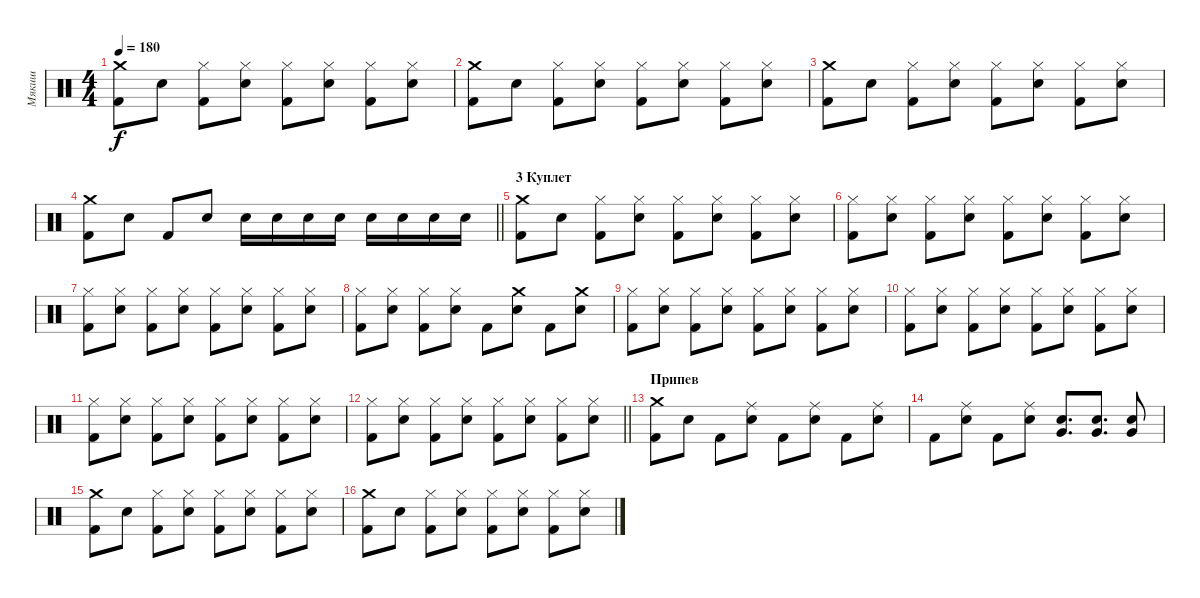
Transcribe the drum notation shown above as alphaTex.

\track ("Мякиш" "Мякиш") {instrument percussion}
\staff {score}
\articulation defaults
\ts (4 4)
\tempo 180
\clef neutral
\ks c
("Crash medium (hit)" "Kick (hit) 2").8{dy f} "Electric Snare (hit)".8 ("Hi-Hat (closed)" "Kick (hit) 2").8 ("Hi-Hat (closed)" "Electric Snare (hit)").8 ("Hi-Hat (closed)" "Kick (hit) 2").8 ("Hi-Hat (closed)" "Electric Snare (hit)").8 ("Hi-Hat (closed)" "Kick (hit) 2").8 ("Hi-Hat (closed)" "Electric Snare (hit)").8 |
("Crash medium (hit)" "Kick (hit) 2").8 "Electric Snare (hit)".8 ("Hi-Hat (closed)" "Kick (hit) 2").8 ("Hi-Hat (closed)" "Electric Snare (hit)").8 ("Hi-Hat (closed)" "Kick (hit) 2").8 ("Hi-Hat (closed)" "Electric Snare (hit)").8 ("Hi-Hat (closed)" "Kick (hit) 2").8 ("Hi-Hat (closed)" "Electric Snare (hit)").8 |
("Crash medium (hit)" "Kick (hit) 2").8 "Electric Snare (hit)".8 ("Hi-Hat (closed)" "Kick (hit) 2").8 ("Hi-Hat (closed)" "Electric Snare (hit)").8 ("Hi-Hat (closed)" "Kick (hit) 2").8 ("Hi-Hat (closed)" "Electric Snare (hit)").8 ("Hi-Hat (closed)" "Kick (hit) 2").8 ("Hi-Hat (closed)" "Electric Snare (hit)").8 |
\barLineRight lightlight
("Crash medium (hit)" "Kick (hit) 2").8 "Electric Snare (hit)".8 "Kick (hit) 2".8 "Electric Snare (hit)".8 "Electric Snare (hit)".16 "Electric Snare (hit)".16 "Electric Snare (hit)".16 "Electric Snare (hit)".16 "Electric Snare (hit)".16 "Electric Snare (hit)".16 "Electric Snare (hit)".16 "Electric Snare (hit)".16 |
\section ("" "3 Куплет")
("Crash medium (hit)" "Kick (hit) 2").8 "Electric Snare (hit)".8 ("Hi-Hat (closed)" "Kick (hit) 2").8 ("Hi-Hat (closed)" "Electric Snare (hit)").8 ("Hi-Hat (closed)" "Kick (hit) 2").8 ("Hi-Hat (closed)" "Electric Snare (hit)").8 ("Hi-Hat (closed)" "Kick (hit) 2").8 ("Hi-Hat (closed)" "Electric Snare (hit)").8 |
("Hi-Hat (closed)" "Kick (hit) 2").8 ("Hi-Hat (closed)" "Electric Snare (hit)").8 ("Hi-Hat (closed)" "Kick (hit) 2").8 ("Hi-Hat (closed)" "Electric Snare (hit)").8 ("Hi-Hat (closed)" "Kick (hit) 2").8 ("Hi-Hat (closed)" "Electric Snare (hit)").8 ("Hi-Hat (closed)" "Kick (hit) 2").8 ("Hi-Hat (closed)" "Electric Snare (hit)").8 |
("Hi-Hat (closed)" "Kick (hit) 2").8 ("Hi-Hat (closed)" "Electric Snare (hit)").8 ("Hi-Hat (closed)" "Kick (hit) 2").8 ("Hi-Hat (closed)" "Electric Snare (hit)").8 ("Hi-Hat (closed)" "Kick (hit) 2").8 ("Hi-Hat (closed)" "Electric Snare (hit)").8 ("Hi-Hat (closed)" "Kick (hit) 2").8 ("Hi-Hat (closed)" "Electric Snare (hit)").8 |
("Hi-Hat (closed)" "Kick (hit) 2").8 ("Hi-Hat (closed)" "Electric Snare (hit)").8 ("Hi-Hat (closed)" "Kick (hit) 2").8 ("Hi-Hat (closed)" "Electric Snare (hit)").8 "Kick (hit) 2".8 ("Crash medium (hit)" "Electric Snare (hit)").8 "Kick (hit) 2".8 ("Crash medium (hit)" "Electric Snare (hit)").8 |
("Hi-Hat (closed)" "Kick (hit) 2").8 ("Hi-Hat (closed)" "Electric Snare (hit)").8 ("Hi-Hat (closed)" "Kick (hit) 2").8 ("Hi-Hat (closed)" "Electric Snare (hit)").8 ("Hi-Hat (closed)" "Kick (hit) 2").8 ("Hi-Hat (closed)" "Electric Snare (hit)").8 ("Hi-Hat (closed)" "Kick (hit) 2").8 ("Hi-Hat (closed)" "Electric Snare (hit)").8 |
("Hi-Hat (closed)" "Kick (hit) 2").8 ("Hi-Hat (closed)" "Electric Snare (hit)").8 ("Hi-Hat (closed)" "Kick (hit) 2").8 ("Hi-Hat (closed)" "Electric Snare (hit)").8 ("Hi-Hat (closed)" "Kick (hit) 2").8 ("Hi-Hat (closed)" "Electric Snare (hit)").8 ("Hi-Hat (closed)" "Kick (hit) 2").8 ("Hi-Hat (closed)" "Electric Snare (hit)").8 |
("Hi-Hat (closed)" "Kick (hit) 2").8 ("Hi-Hat (closed)" "Electric Snare (hit)").8 ("Hi-Hat (closed)" "Kick (hit) 2").8 ("Hi-Hat (closed)" "Electric Snare (hit)").8 ("Hi-Hat (closed)" "Kick (hit) 2").8 ("Hi-Hat (closed)" "Electric Snare (hit)").8 ("Hi-Hat (closed)" "Kick (hit) 2").8 ("Hi-Hat (closed)" "Electric Snare (hit)").8 |
\barLineRight lightlight
("Hi-Hat (closed)" "Kick (hit) 2").8 ("Hi-Hat (closed)" "Electric Snare (hit)").8 ("Hi-Hat (closed)" "Kick (hit) 2").8 ("Hi-Hat (closed)" "Electric Snare (hit)").8 ("Hi-Hat (closed)" "Kick (hit) 2").8 ("Hi-Hat (closed)" "Electric Snare (hit)").8 ("Hi-Hat (closed)" "Kick (hit) 2").8 ("Hi-Hat (closed)" "Electric Snare (hit)").8 |
\section ("" "Припев")
("Crash medium (hit)" "Kick (hit) 2").8 "Electric Snare (hit)".8 "Kick (hit) 2".8 ("Ride (middle)" "Electric Snare (hit)").8 "Kick (hit) 2".8 ("Ride (middle)" "Electric Snare (hit)").8 "Kick (hit) 2".8 ("Ride (middle)" "Electric Snare (hit)").8 |
"Kick (hit) 2".8 ("Ride (middle)" "Electric Snare (hit)").8 "Kick (hit) 2".8 ("Ride (middle)" "Electric Snare (hit)").8 ("Very Low Tom (hit)" "Electric Snare (hit)").8{d} ("Very Low Tom (hit)" "Electric Snare (hit)").8{d} ("Very Low Tom (hit)" "Electric Snare (hit)").8 |
("Crash medium (hit)" "Kick (hit) 2").8 "Electric Snare (hit)".8 ("Hi-Hat (closed)" "Kick (hit) 2").8 ("Hi-Hat (closed)" "Electric Snare (hit)").8 ("Hi-Hat (closed)" "Kick (hit) 2").8 ("Hi-Hat (closed)" "Electric Snare (hit)").8 ("Hi-Hat (closed)" "Kick (hit) 2").8 ("Hi-Hat (closed)" "Electric Snare (hit)").8 |
("Crash medium (hit)" "Kick (hit) 2").8 "Electric Snare (hit)".8 ("Hi-Hat (closed)" "Kick (hit) 2").8 ("Hi-Hat (closed)" "Electric Snare (hit)").8 ("Hi-Hat (closed)" "Kick (hit) 2").8 ("Hi-Hat (closed)" "Electric Snare (hit)").8 ("Hi-Hat (closed)" "Kick (hit) 2").8 ("Hi-Hat (closed)" "Electric Snare (hit)").8
